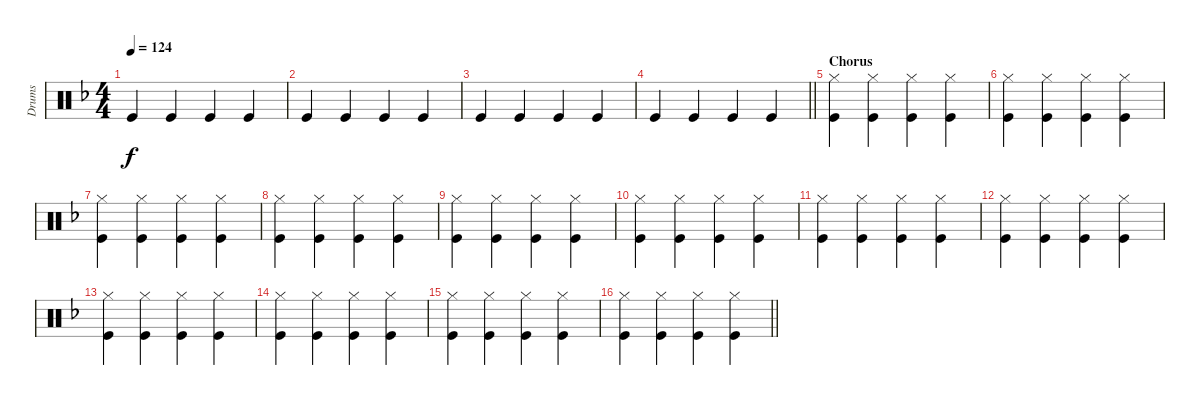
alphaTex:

\track ("Drums" "Drums") {instrument percussion}
\staff {score}
\articulation defaults
\ts (4 4)
\tempo 124
\clef neutral
\ks f "Kick (hit)".4{dy f} "Kick (hit)".4 "Kick (hit)".4 "Kick (hit)".4
|
"Kick (hit)".4 "Kick (hit)".4 "Kick (hit)".4 "Kick (hit)".4 |
"Kick (hit)".4 "Kick (hit)".4 "Kick (hit)".4 "Kick (hit)".4 |
\barLineRight lightlight "Kick (hit)".4 "Kick (hit)".4 "Kick (hit)".4 "Kick (hit)".4
|
\section ("" "Chorus")
("Hi-Hat (closed)" "Kick (hit)").4 ("Hi-Hat (closed)" "Kick (hit)").4 ("Hi-Hat (closed)" "Kick (hit)").4 ("Hi-Hat (closed)" "Kick (hit)").4 |
("Hi-Hat (closed)" "Kick (hit)").4 ("Hi-Hat (closed)" "Kick (hit)").4 ("Hi-Hat (closed)" "Kick (hit)").4 ("Hi-Hat (closed)" "Kick (hit)").4 |
("Hi-Hat (closed)" "Kick (hit)").4 ("Hi-Hat (closed)" "Kick (hit)").4 ("Hi-Hat (closed)" "Kick (hit)").4 ("Hi-Hat (closed)" "Kick (hit)").4 |
("Hi-Hat (closed)" "Kick (hit)").4 ("Hi-Hat (closed)" "Kick (hit)").4 ("Hi-Hat (closed)" "Kick (hit)").4 ("Hi-Hat (closed)" "Kick (hit)").4 |
("Hi-Hat (closed)" "Kick (hit)").4 ("Hi-Hat (closed)" "Kick (hit)").4 ("Hi-Hat (closed)" "Kick (hit)").4 ("Hi-Hat (closed)" "Kick (hit)").4 |
("Hi-Hat (closed)" "Kick (hit)").4 ("Hi-Hat (closed)" "Kick (hit)").4 ("Hi-Hat (closed)" "Kick (hit)").4 ("Hi-Hat (closed)" "Kick (hit)").4 |
("Hi-Hat (closed)" "Kick (hit)").4 ("Hi-Hat (closed)" "Kick (hit)").4 ("Hi-Hat (closed)" "Kick (hit)").4 ("Hi-Hat (closed)" "Kick (hit)").4 |
("Hi-Hat (closed)" "Kick (hit)").4 ("Hi-Hat (closed)" "Kick (hit)").4 ("Hi-Hat (closed)" "Kick (hit)").4 ("Hi-Hat (closed)" "Kick (hit)").4 |
("Hi-Hat (closed)" "Kick (hit)").4 ("Hi-Hat (closed)" "Kick (hit)").4 ("Hi-Hat (closed)" "Kick (hit)").4 ("Hi-Hat (closed)" "Kick (hit)").4 |
("Hi-Hat (closed)" "Kick (hit)").4 ("Hi-Hat (closed)" "Kick (hit)").4 ("Hi-Hat (closed)" "Kick (hit)").4 ("Hi-Hat (closed)" "Kick (hit)").4 |
("Hi-Hat (closed)" "Kick (hit)").4 ("Hi-Hat (closed)" "Kick (hit)").4 ("Hi-Hat (closed)" "Kick (hit)").4 ("Hi-Hat (closed)" "Kick (hit)").4 |
\barLineRight lightlight
("Hi-Hat (closed)" "Kick (hit)").4 ("Hi-Hat (closed)" "Kick (hit)").4 ("Hi-Hat (closed)" "Kick (hit)").4 ("Hi-Hat (closed)" "Kick (hit)").4
